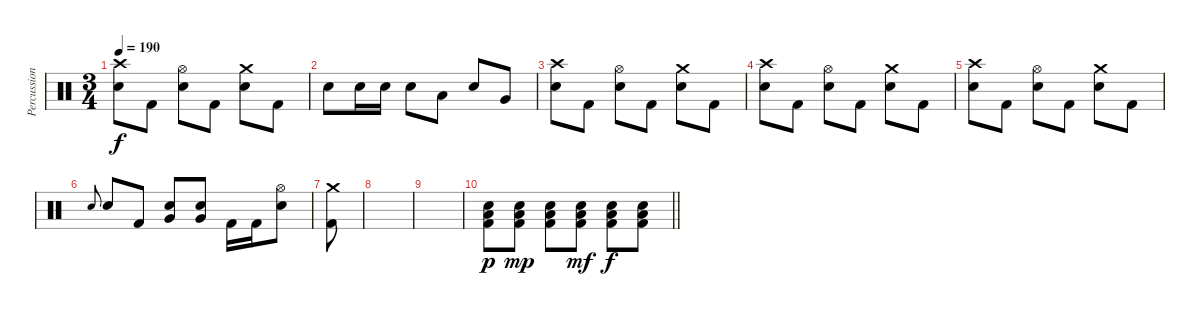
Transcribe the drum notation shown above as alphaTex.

\track ("Percussion" "Percussion") {instrument percussion}
\staff {score}
\articulation defaults
\ts (3 4)
\tempo 190
\clef neutral
\ks c
("Crash high (hit)" "Electric Snare (hit)").8{dy f} "Kick (hit) 2".8 ("Hi-Hat (open)" "Electric Snare (hit)").8 "Kick (hit) 2".8 ("Crash medium (hit)" "Electric Snare (hit)").8 "Kick (hit) 2".8 |
"Electric Snare (hit)".8 "Electric Snare (hit)".16 "Electric Snare (hit)".16 "Electric Snare (hit)".8 "Low Tom (hit)".8 "Electric Snare (hit)".8 "Very Low Tom (hit)".8 |
("Crash high (hit)" "Electric Snare (hit)").8 "Kick (hit) 2".8 ("Hi-Hat (open)" "Electric Snare (hit)").8 "Kick (hit) 2".8 ("Crash medium (hit)" "Electric Snare (hit)").8 "Kick (hit) 2".8 |
("Crash high (hit)" "Electric Snare (hit)").8 "Kick (hit) 2".8 ("Hi-Hat (open)" "Electric Snare (hit)").8 "Kick (hit) 2".8 ("Crash medium (hit)" "Electric Snare (hit)").8 "Kick (hit) 2".8 |
("Crash high (hit)" "Electric Snare (hit)").8 "Kick (hit) 2".8 ("Hi-Hat (open)" "Electric Snare (hit)").8 "Kick (hit) 2".8 ("Crash medium (hit)" "Electric Snare (hit)").8 "Kick (hit) 2".8 |
"Electric Snare (hit)".8{gr onbeat} "Electric Snare (hit)".8 "Kick (hit) 2".8 ("Very Low Tom (hit)" "Electric Snare (hit)").8 ("Very Low Tom (hit)" "Electric Snare (hit)").8 "Kick (hit) 2".16 "Kick (hit) 2".16 ("Hi-Hat (open)" "Electric Snare (hit)").8 |
("Crash medium (hit)" "Kick (hit) 2").8 |
|
|
\barLineRight lightlight
("Low Floor Tom (hit)" "Electric Snare (hit)" "Kick (hit) 2").8{dy p} ("Low Floor Tom (hit)" "Electric Snare (hit)" "Kick (hit) 2").8{dy mp} ("Low Floor Tom (hit)" "Electric Snare (hit)" "Kick (hit) 2").8 ("Low Floor Tom (hit)" "Electric Snare (hit)" "Kick (hit) 2").8{dy mf} ("Low Floor Tom (hit)" "Electric Snare (hit)" "Kick (hit) 2").8{dy f} ("Low Floor Tom (hit)" "Electric Snare (hit)" "Kick (hit) 2").8
